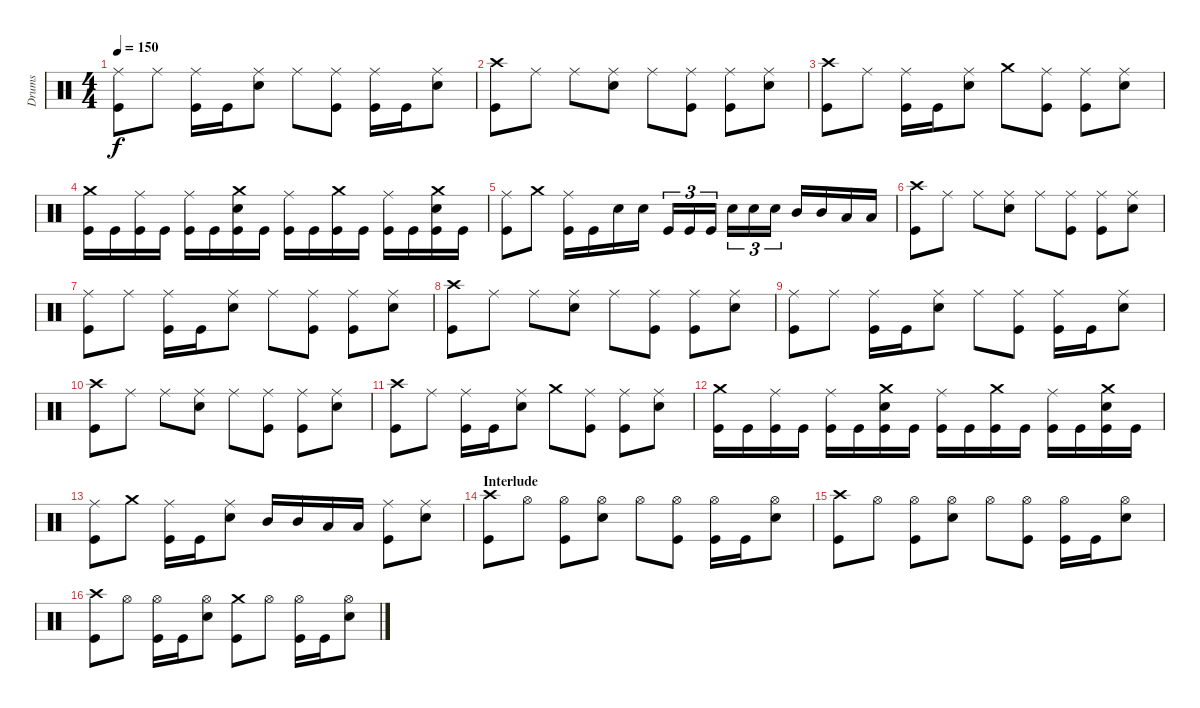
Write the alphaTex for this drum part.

\track ("Drums" "Drums") {instrument percussion}
\staff {score}
\articulation defaults
\ts (4 4)
\tempo 150
\clef neutral
\ks c
("Ride (middle)" "Kick (hit)").8{dy f} "Ride (middle)".8 ("Ride (middle)" "Kick (hit)").16 "Kick (hit)".16 ("Ride (middle)" "Electric Snare (hit)").8 "Ride (middle)".8 ("Ride (middle)" "Kick (hit)").8 ("Ride (middle)" "Kick (hit)").16 "Kick (hit)".16 ("Ride (middle)" "Electric Snare (hit)").8 |
("Crash high (hit)" "Kick (hit)").8 "Ride (middle)".8 "Ride (middle)".8 ("Ride (middle)" "Electric Snare (hit)").8 "Ride (middle)".8 ("Ride (middle)" "Kick (hit)").8 ("Ride (middle)" "Kick (hit)").8 ("Ride (middle)" "Electric Snare (hit)").8 |
("Crash high (hit)" "Kick (hit)").8 "Ride (middle)".8 ("Ride (middle)" "Kick (hit)").16 "Kick (hit)".16 ("Ride (middle)" "Electric Snare (hit)").8 "Crash medium (hit)".8 ("Ride (middle)" "Kick (hit)").8 ("Ride (middle)" "Kick (hit)").8 ("Ride (middle)" "Electric Snare (hit)").8 |
("Crash medium (hit)" "Kick (hit)").16 "Kick (hit)".16 ("Ride (middle)" "Kick (hit)").16 "Kick (hit)".16 ("Ride (middle)" "Kick (hit)").16 "Kick (hit)".16 ("Crash medium (hit)" "Electric Snare (hit)" "Kick (hit)").16 "Kick (hit)".16 ("Ride (middle)" "Kick (hit)").16 "Kick (hit)".16 ("Crash medium (hit)" "Kick (hit)").16 "Kick (hit)".16 ("Ride (middle)" "Kick (hit)").16 "Kick (hit)".16 ("Crash medium (hit)" "Electric Snare (hit)" "Kick (hit)").16 "Kick (hit)".16 |
("Ride (middle)" "Kick (hit)").8 "Crash medium (hit)".8 ("Ride (middle)" "Kick (hit)").16 "Kick (hit)".16 "Electric Snare (hit)".16 "Electric Snare (hit)".16 "Kick (hit)".16{tu (3 2)} "Kick (hit)".16{tu (3 2)} "Kick (hit)".16{tu (3 2)} "Electric Snare (hit)".16{tu (3 2)} "Electric Snare (hit)".16{tu (3 2)} "Electric Snare (hit)".16{tu (3 2)} "Mid Tom (hit)".16 "Mid Tom (hit)".16 "Low Tom (hit)".16 "Low Tom (hit)".16 |
("Crash high (hit)" "Kick (hit)").8 "Ride (middle)".8 "Ride (middle)".8 ("Ride (middle)" "Electric Snare (hit)").8 "Ride (middle)".8 ("Ride (middle)" "Kick (hit)").8 ("Ride (middle)" "Kick (hit)").8 ("Ride (middle)" "Electric Snare (hit)").8 |
("Ride (middle)" "Kick (hit)").8 "Ride (middle)".8 ("Ride (middle)" "Kick (hit)").16 "Kick (hit)".16 ("Ride (middle)" "Electric Snare (hit)").8 "Ride (middle)".8 ("Ride (middle)" "Kick (hit)").8 ("Ride (middle)" "Kick (hit)").8 ("Ride (middle)" "Electric Snare (hit)").8 |
("Crash high (hit)" "Kick (hit)").8 "Ride (middle)".8 "Ride (middle)".8 ("Ride (middle)" "Electric Snare (hit)").8 "Ride (middle)".8 ("Ride (middle)" "Kick (hit)").8 ("Ride (middle)" "Kick (hit)").8 ("Ride (middle)" "Electric Snare (hit)").8 |
("Ride (middle)" "Kick (hit)").8 "Ride (middle)".8 ("Ride (middle)" "Kick (hit)").16 "Kick (hit)".16 ("Ride (middle)" "Electric Snare (hit)").8 "Ride (middle)".8 ("Ride (middle)" "Kick (hit)").8 ("Ride (middle)" "Kick (hit)").16 "Kick (hit)".16 ("Ride (middle)" "Electric Snare (hit)").8 |
("Crash high (hit)" "Kick (hit)").8 "Ride (middle)".8 "Ride (middle)".8 ("Ride (middle)" "Electric Snare (hit)").8 "Ride (middle)".8 ("Ride (middle)" "Kick (hit)").8 ("Ride (middle)" "Kick (hit)").8 ("Ride (middle)" "Electric Snare (hit)").8 |
("Crash high (hit)" "Kick (hit)").8 "Ride (middle)".8 ("Ride (middle)" "Kick (hit)").16 "Kick (hit)".16 ("Ride (middle)" "Electric Snare (hit)").8 "Crash medium (hit)".8 ("Ride (middle)" "Kick (hit)").8 ("Ride (middle)" "Kick (hit)").8 ("Ride (middle)" "Electric Snare (hit)").8 |
("Crash medium (hit)" "Kick (hit)").16 "Kick (hit)".16 ("Ride (middle)" "Kick (hit)").16 "Kick (hit)".16 ("Ride (middle)" "Kick (hit)").16 "Kick (hit)".16 ("Crash medium (hit)" "Electric Snare (hit)" "Kick (hit)").16 "Kick (hit)".16 ("Ride (middle)" "Kick (hit)").16 "Kick (hit)".16 ("Crash medium (hit)" "Kick (hit)").16 "Kick (hit)".16 ("Ride (middle)" "Kick (hit)").16 "Kick (hit)".16 ("Crash medium (hit)" "Electric Snare (hit)" "Kick (hit)").16 "Kick (hit)".16 |
("Ride (middle)" "Kick (hit)").8 "Crash medium (hit)".8 ("Ride (middle)" "Kick (hit)").16 "Kick (hit)".16 ("Ride (middle)" "Electric Snare (hit)").8 "Mid Tom (hit)".16 "Mid Tom (hit)".16 "Low Tom (hit)".16 "Low Tom (hit)".16 ("Ride (middle)" "Kick (hit)").8 ("Ride (middle)" "Electric Snare (hit)").8 |
\section ("" "Interlude")
("Crash high (hit)" "Kick (hit)").8 "Hi-Hat (open)".8 ("Hi-Hat (open)" "Kick (hit)").8 ("Hi-Hat (open)" "Electric Snare (hit)").8 "Hi-Hat (open)".8 ("Hi-Hat (open)" "Kick (hit)").8 ("Hi-Hat (open)" "Kick (hit)").16 "Kick (hit)".16 ("Hi-Hat (open)" "Electric Snare (hit)").8 |
("Crash high (hit)" "Kick (hit)").8 "Hi-Hat (open)".8 ("Hi-Hat (open)" "Kick (hit)").8 ("Hi-Hat (open)" "Electric Snare (hit)").8 "Hi-Hat (open)".8 ("Hi-Hat (open)" "Kick (hit)").8 ("Hi-Hat (open)" "Kick (hit)").16 "Kick (hit)".16 ("Hi-Hat (open)" "Electric Snare (hit)").8 |
("Crash high (hit)" "Kick (hit)").8 "Hi-Hat (open)".8 ("Hi-Hat (open)" "Kick (hit)").16 "Kick (hit)".16 ("Hi-Hat (open)" "Electric Snare (hit)").8 ("Crash medium (hit)" "Kick (hit)").8 "Hi-Hat (open)".8 ("Hi-Hat (open)" "Kick (hit)").16 "Kick (hit)".16 ("Hi-Hat (open)" "Electric Snare (hit)").8
